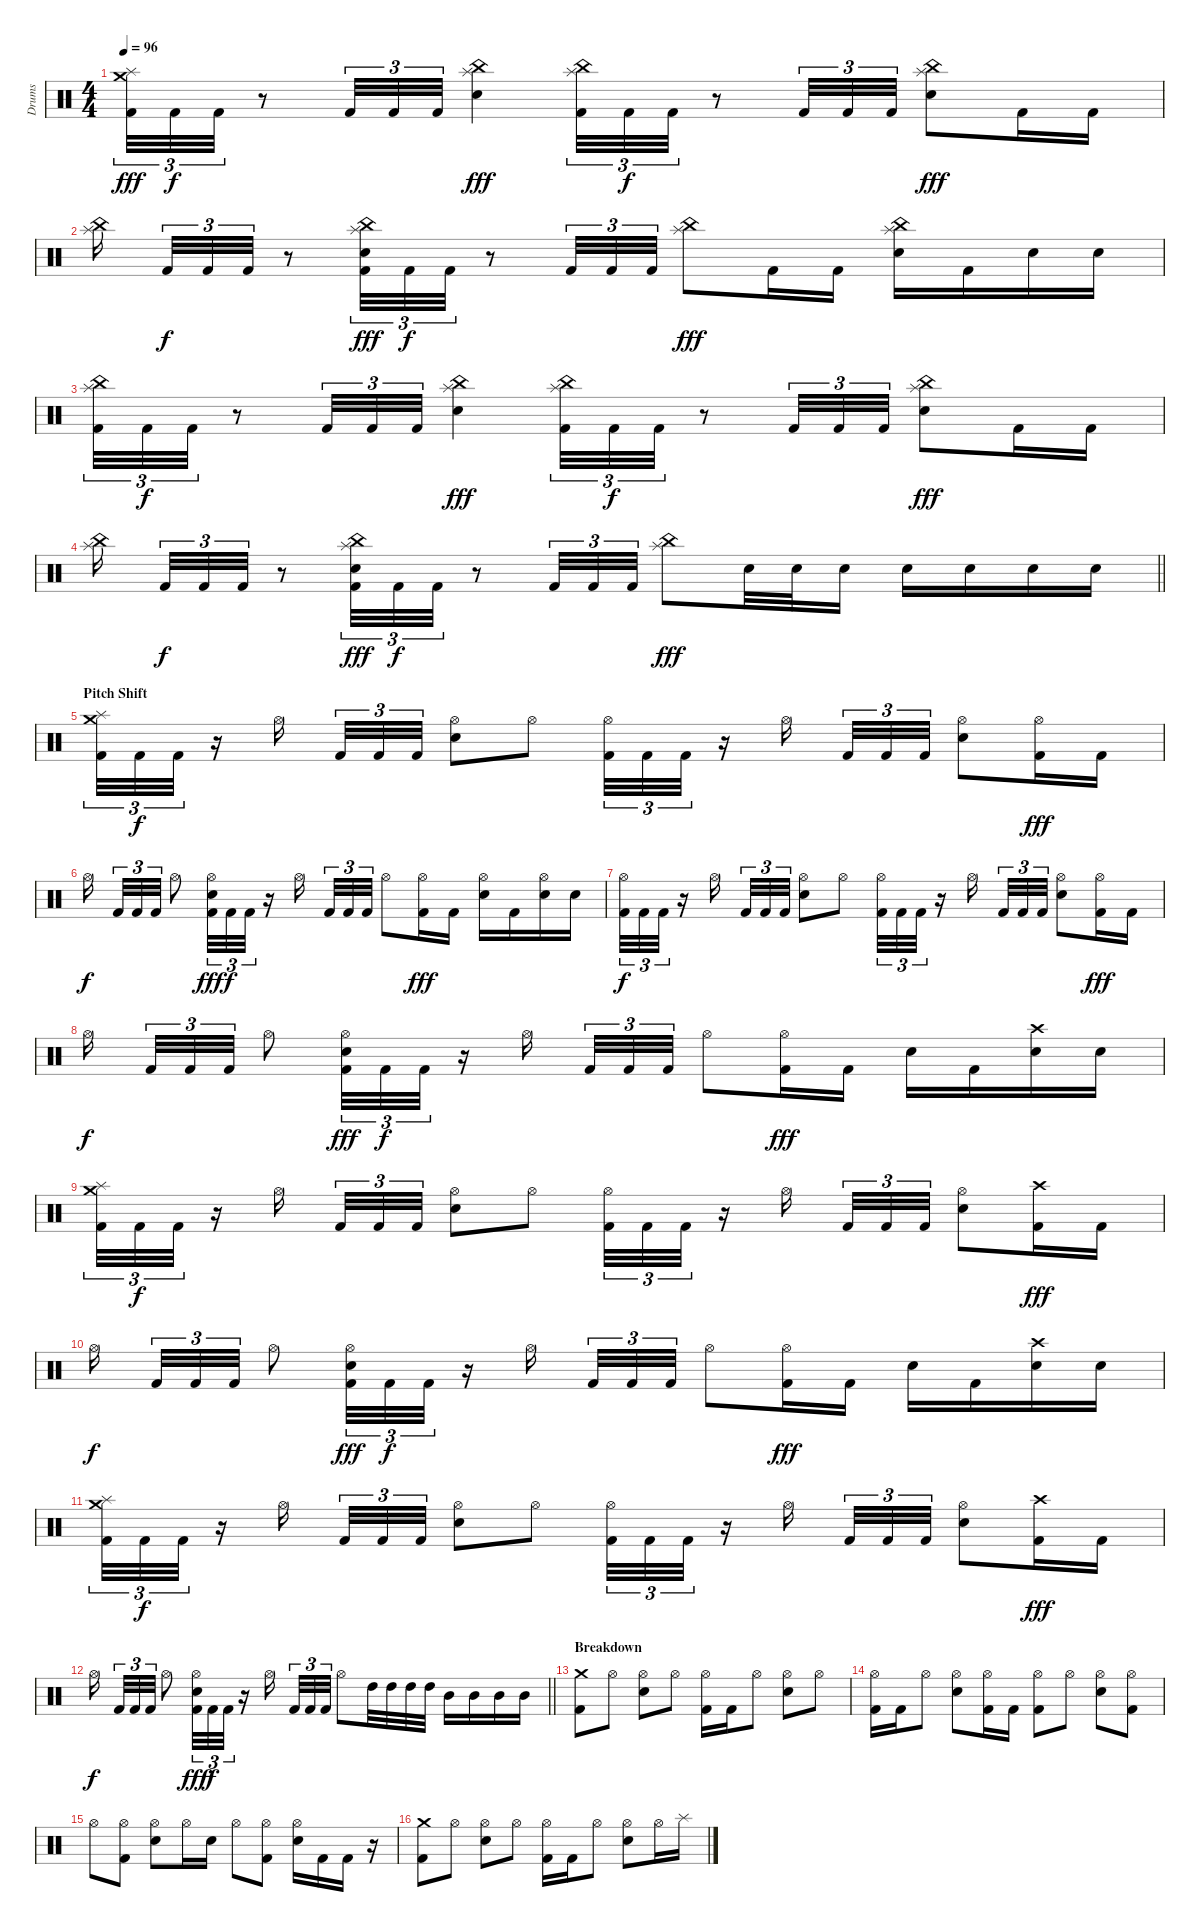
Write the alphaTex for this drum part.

\track ("Drums" "Drums") {instrument percussion}
\staff {score}
\articulation defaults
\ts (4 4)
\tempo 96
\clef neutral
\ks c
("Crash medium (hit)" "Splash (hit)" "Kick (hit) 2").32{tu (3 2) dy fff} "Kick (hit) 2".32{tu (3 2) dy f} "Kick (hit) 2".32{tu (3 2)} r.8 "Kick (hit) 2".32{tu (3 2)} "Kick (hit) 2".32{tu (3 2)} "Kick (hit) 2".32{tu (3 2)} ("China (hit)" "Splash (hit)" "Electric Snare (hit)").4{dy fff} ("China (hit)" "Splash (hit)" "Kick (hit) 2").32{tu (3 2)} "Kick (hit) 2".32{tu (3 2) dy f} "Kick (hit) 2".32{tu (3 2)} r.8 "Kick (hit) 2".32{tu (3 2)} "Kick (hit) 2".32{tu (3 2)} "Kick (hit) 2".32{tu (3 2)} ("China (hit)" "Splash (hit)" "Electric Snare (hit)").8{dy fff} "Kick (hit) 2".16 "Kick (hit) 2".16 |
("China (hit)" "Splash (hit)").16{beam splitsecondary} "Kick (hit) 2".32{tu (3 2) dy f} "Kick (hit) 2".32{tu (3 2)} "Kick (hit) 2".32{tu (3 2)} r.8 ("China (hit)" "Splash (hit)" "Electric Snare (hit)" "Kick (hit) 2").32{tu (3 2) dy fff} "Kick (hit) 2".32{tu (3 2) dy f} "Kick (hit) 2".32{tu (3 2)} r.8 "Kick (hit) 2".32{tu (3 2)} "Kick (hit) 2".32{tu (3 2)} "Kick (hit) 2".32{tu (3 2)} ("China (hit)" "Splash (hit)").8{dy fff} "Kick (hit) 2".16 "Kick (hit) 2".16 ("China (hit)" "Splash (hit)" "Electric Snare (hit)").16 "Kick (hit) 2".16 "Electric Snare (hit)".16 "Electric Snare (hit)".16 |
("China (hit)" "Splash (hit)" "Kick (hit) 2").32{tu (3 2)} "Kick (hit) 2".32{tu (3 2) dy f} "Kick (hit) 2".32{tu (3 2)} r.8 "Kick (hit) 2".32{tu (3 2)} "Kick (hit) 2".32{tu (3 2)} "Kick (hit) 2".32{tu (3 2)} ("China (hit)" "Splash (hit)" "Electric Snare (hit)").4{dy fff} ("China (hit)" "Splash (hit)" "Kick (hit) 2").32{tu (3 2)} "Kick (hit) 2".32{tu (3 2) dy f} "Kick (hit) 2".32{tu (3 2)} r.8 "Kick (hit) 2".32{tu (3 2)} "Kick (hit) 2".32{tu (3 2)} "Kick (hit) 2".32{tu (3 2)} ("China (hit)" "Splash (hit)" "Electric Snare (hit)").8{dy fff} "Kick (hit) 2".16 "Kick (hit) 2".16 |
\barLineRight lightlight
("China (hit)" "Splash (hit)").16{beam splitsecondary} "Kick (hit) 2".32{tu (3 2) dy f} "Kick (hit) 2".32{tu (3 2)} "Kick (hit) 2".32{tu (3 2)} r.8 ("China (hit)" "Splash (hit)" "Electric Snare (hit)" "Kick (hit) 2").32{tu (3 2) dy fff} "Kick (hit) 2".32{tu (3 2) dy f} "Kick (hit) 2".32{tu (3 2)} r.8 "Kick (hit) 2".32{tu (3 2)} "Kick (hit) 2".32{tu (3 2)} "Kick (hit) 2".32{tu (3 2)} ("China (hit)" "Splash (hit)").8{dy fff} "Electric Snare (hit)".32 "Electric Snare (hit)".32 "Electric Snare (hit)".16 "Electric Snare (hit)".16 "Electric Snare (hit)".16 "Electric Snare (hit)".16 "Electric Snare (hit)".16 |
\section ("" "Pitch Shift")
("Crash medium (hit)" "Splash (hit)" "Kick (hit) 2").32{tu (3 2)} "Kick (hit) 2".32{tu (3 2) dy f} "Kick (hit) 2".32{tu (3 2)} r.16 "Hi-Hat (open)".16{beam splitsecondary} "Kick (hit) 2".32{tu (3 2)} "Kick (hit) 2".32{tu (3 2)} "Kick (hit) 2".32{tu (3 2)} ("Hi-Hat (open)" "Electric Snare (hit)").8 "Hi-Hat (open)".8 ("Hi-Hat (open)" "Kick (hit) 2").32{tu (3 2)} "Kick (hit) 2".32{tu (3 2)} "Kick (hit) 2".32{tu (3 2)} r.16 "Hi-Hat (open)".16{beam splitsecondary} "Kick (hit) 2".32{tu (3 2)} "Kick (hit) 2".32{tu (3 2)} "Kick (hit) 2".32{tu (3 2)} ("Hi-Hat (open)" "Electric Snare (hit)").8 ("Hi-Hat (open)" "Kick (hit) 2").16{dy fff} "Kick (hit) 2".16 |
"Hi-Hat (open)".16{dy f beam splitsecondary} "Kick (hit) 2".32{tu (3 2)} "Kick (hit) 2".32{tu (3 2)} "Kick (hit) 2".32{tu (3 2)} "Hi-Hat (open)".8 ("Hi-Hat (open)" "Electric Snare (hit)" "Kick (hit) 2").32{tu (3 2) dy fff} "Kick (hit) 2".32{tu (3 2) dy f} "Kick (hit) 2".32{tu (3 2)} r.16 "Hi-Hat (open)".16{beam splitsecondary} "Kick (hit) 2".32{tu (3 2)} "Kick (hit) 2".32{tu (3 2)} "Kick (hit) 2".32{tu (3 2)} "Hi-Hat (open)".8 ("Hi-Hat (open)" "Kick (hit) 2").16{dy fff} "Kick (hit) 2".16 ("Hi-Hat (open)" "Electric Snare (hit)").16 "Kick (hit) 2".16 ("Hi-Hat (open)" "Electric Snare (hit)").16 "Electric Snare (hit)".16 |
("Hi-Hat (open)" "Kick (hit) 2").32{tu (3 2) dy f} "Kick (hit) 2".32{tu (3 2)} "Kick (hit) 2".32{tu (3 2)} r.16 "Hi-Hat (open)".16{beam splitsecondary} "Kick (hit) 2".32{tu (3 2)} "Kick (hit) 2".32{tu (3 2)} "Kick (hit) 2".32{tu (3 2)} ("Hi-Hat (open)" "Electric Snare (hit)").8 "Hi-Hat (open)".8 ("Hi-Hat (open)" "Kick (hit) 2").32{tu (3 2)} "Kick (hit) 2".32{tu (3 2)} "Kick (hit) 2".32{tu (3 2)} r.16 "Hi-Hat (open)".16{beam splitsecondary} "Kick (hit) 2".32{tu (3 2)} "Kick (hit) 2".32{tu (3 2)} "Kick (hit) 2".32{tu (3 2)} ("Hi-Hat (open)" "Electric Snare (hit)").8 ("Hi-Hat (open)" "Kick (hit) 2").16{dy fff} "Kick (hit) 2".16 |
"Hi-Hat (open)".16{dy f beam splitsecondary} "Kick (hit) 2".32{tu (3 2)} "Kick (hit) 2".32{tu (3 2)} "Kick (hit) 2".32{tu (3 2)} "Hi-Hat (open)".8 ("Hi-Hat (open)" "Electric Snare (hit)" "Kick (hit) 2").32{tu (3 2) dy fff} "Kick (hit) 2".32{tu (3 2) dy f} "Kick (hit) 2".32{tu (3 2)} r.16 "Hi-Hat (open)".16{beam splitsecondary} "Kick (hit) 2".32{tu (3 2)} "Kick (hit) 2".32{tu (3 2)} "Kick (hit) 2".32{tu (3 2)} "Hi-Hat (open)".8 ("Hi-Hat (open)" "Kick (hit) 2").16{dy fff} "Kick (hit) 2".16 "Electric Snare (hit)".16 "Kick (hit) 2".16 ("Crash high (hit)" "Electric Snare (hit)").16 "Electric Snare (hit)".16 |
("Crash medium (hit)" "Splash (hit)" "Kick (hit) 2").32{tu (3 2)} "Kick (hit) 2".32{tu (3 2) dy f} "Kick (hit) 2".32{tu (3 2)} r.16 "Hi-Hat (open)".16{beam splitsecondary} "Kick (hit) 2".32{tu (3 2)} "Kick (hit) 2".32{tu (3 2)} "Kick (hit) 2".32{tu (3 2)} ("Hi-Hat (open)" "Electric Snare (hit)").8 "Hi-Hat (open)".8 ("Hi-Hat (open)" "Kick (hit) 2").32{tu (3 2)} "Kick (hit) 2".32{tu (3 2)} "Kick (hit) 2".32{tu (3 2)} r.16 "Hi-Hat (open)".16{beam splitsecondary} "Kick (hit) 2".32{tu (3 2)} "Kick (hit) 2".32{tu (3 2)} "Kick (hit) 2".32{tu (3 2)} ("Hi-Hat (open)" "Electric Snare (hit)").8 ("Crash high (hit)" "Kick (hit) 2").16{dy fff} "Kick (hit) 2".16 |
"Hi-Hat (open)".16{dy f beam splitsecondary} "Kick (hit) 2".32{tu (3 2)} "Kick (hit) 2".32{tu (3 2)} "Kick (hit) 2".32{tu (3 2)} "Hi-Hat (open)".8 ("Hi-Hat (open)" "Electric Snare (hit)" "Kick (hit) 2").32{tu (3 2) dy fff} "Kick (hit) 2".32{tu (3 2) dy f} "Kick (hit) 2".32{tu (3 2)} r.16 "Hi-Hat (open)".16{beam splitsecondary} "Kick (hit) 2".32{tu (3 2)} "Kick (hit) 2".32{tu (3 2)} "Kick (hit) 2".32{tu (3 2)} "Hi-Hat (open)".8 ("Hi-Hat (open)" "Kick (hit) 2").16{dy fff} "Kick (hit) 2".16 "Electric Snare (hit)".16 "Kick (hit) 2".16 ("Crash high (hit)" "Electric Snare (hit)").16 "Electric Snare (hit)".16 |
("Crash medium (hit)" "Splash (hit)" "Kick (hit) 2").32{tu (3 2)} "Kick (hit) 2".32{tu (3 2) dy f} "Kick (hit) 2".32{tu (3 2)} r.16 "Hi-Hat (open)".16{beam splitsecondary} "Kick (hit) 2".32{tu (3 2)} "Kick (hit) 2".32{tu (3 2)} "Kick (hit) 2".32{tu (3 2)} ("Hi-Hat (open)" "Electric Snare (hit)").8 "Hi-Hat (open)".8 ("Hi-Hat (open)" "Kick (hit) 2").32{tu (3 2)} "Kick (hit) 2".32{tu (3 2)} "Kick (hit) 2".32{tu (3 2)} r.16 "Hi-Hat (open)".16{beam splitsecondary} "Kick (hit) 2".32{tu (3 2)} "Kick (hit) 2".32{tu (3 2)} "Kick (hit) 2".32{tu (3 2)} ("Hi-Hat (open)" "Electric Snare (hit)").8 ("Crash high (hit)" "Kick (hit) 2").16{dy fff} "Kick (hit) 2".16 |
\barLineRight lightlight "Hi-Hat (open)".16{dy f beam splitsecondary} "Kick (hit) 2".32{tu (3 2)} "Kick (hit) 2".32{tu (3 2)} "Kick (hit) 2".32{tu (3 2)} "Hi-Hat (open)".8
("Hi-Hat (open)" "Electric Snare (hit)" "Kick (hit) 2").32{tu (3 2) dy fff} "Kick (hit) 2".32{tu (3 2) dy f} "Kick (hit) 2".32{tu (3 2)} r.16 "Hi-Hat (open)".16{beam splitsecondary} "Kick (hit) 2".32{tu (3 2)} "Kick (hit) 2".32{tu (3 2)} "Kick (hit) 2".32{tu (3 2)} "Hi-Hat (open)".8 "High Tom (hit)".32 "High Tom (hit)".32 "High Tom (hit)".32 "High Tom (hit)".32 "Mid Tom (hit)".16 "Mid Tom (hit)".16 "Mid Tom (hit)".16 "Mid Tom (hit)".16 |
\section ("" "Breakdown")
("Crash medium (hit)" "Kick (hit) 2").8 "Hi-Hat (open)".8 ("Hi-Hat (open)" "Electric Snare (hit)").8 "Hi-Hat (open)".8 ("Hi-Hat (open)" "Kick (hit) 2").16 "Kick (hit) 2".16 "Hi-Hat (open)".8 ("Hi-Hat (open)" "Electric Snare (hit)").8 "Hi-Hat (open)".8 |
("Hi-Hat (open)" "Kick (hit) 2").16 "Kick (hit) 2".16 "Hi-Hat (open)".8 ("Hi-Hat (open)" "Electric Snare (hit)").8 ("Hi-Hat (open)" "Kick (hit) 2").16 "Kick (hit) 2".16 ("Hi-Hat (open)" "Kick (hit) 2").8 "Hi-Hat (open)".8 ("Hi-Hat (open)" "Electric Snare (hit)").8 ("Hi-Hat (open)" "Kick (hit) 2").8 |
"Hi-Hat (open)".8 ("Hi-Hat (open)" "Kick (hit) 2").8 ("Hi-Hat (open)" "Electric Snare (hit)").8 "Hi-Hat (open)".16 "Electric Snare (hit)".16 "Hi-Hat (open)".8 ("Hi-Hat (open)" "Kick (hit) 2").8 ("Hi-Hat (open)" "Electric Snare (hit)").16 "Kick (hit) 2".16 "Kick (hit) 2".16 r.16 |
("Crash medium (hit)" "Kick (hit) 2").8 "Hi-Hat (open)".8 ("Hi-Hat (open)" "Electric Snare (hit)").8 "Hi-Hat (open)".8 ("Hi-Hat (open)" "Kick (hit) 2").16 "Kick (hit) 2".16 "Hi-Hat (open)".8 ("Hi-Hat (open)" "Electric Snare (hit)").8 "Hi-Hat (open)".16 "Splash (hit)".16
